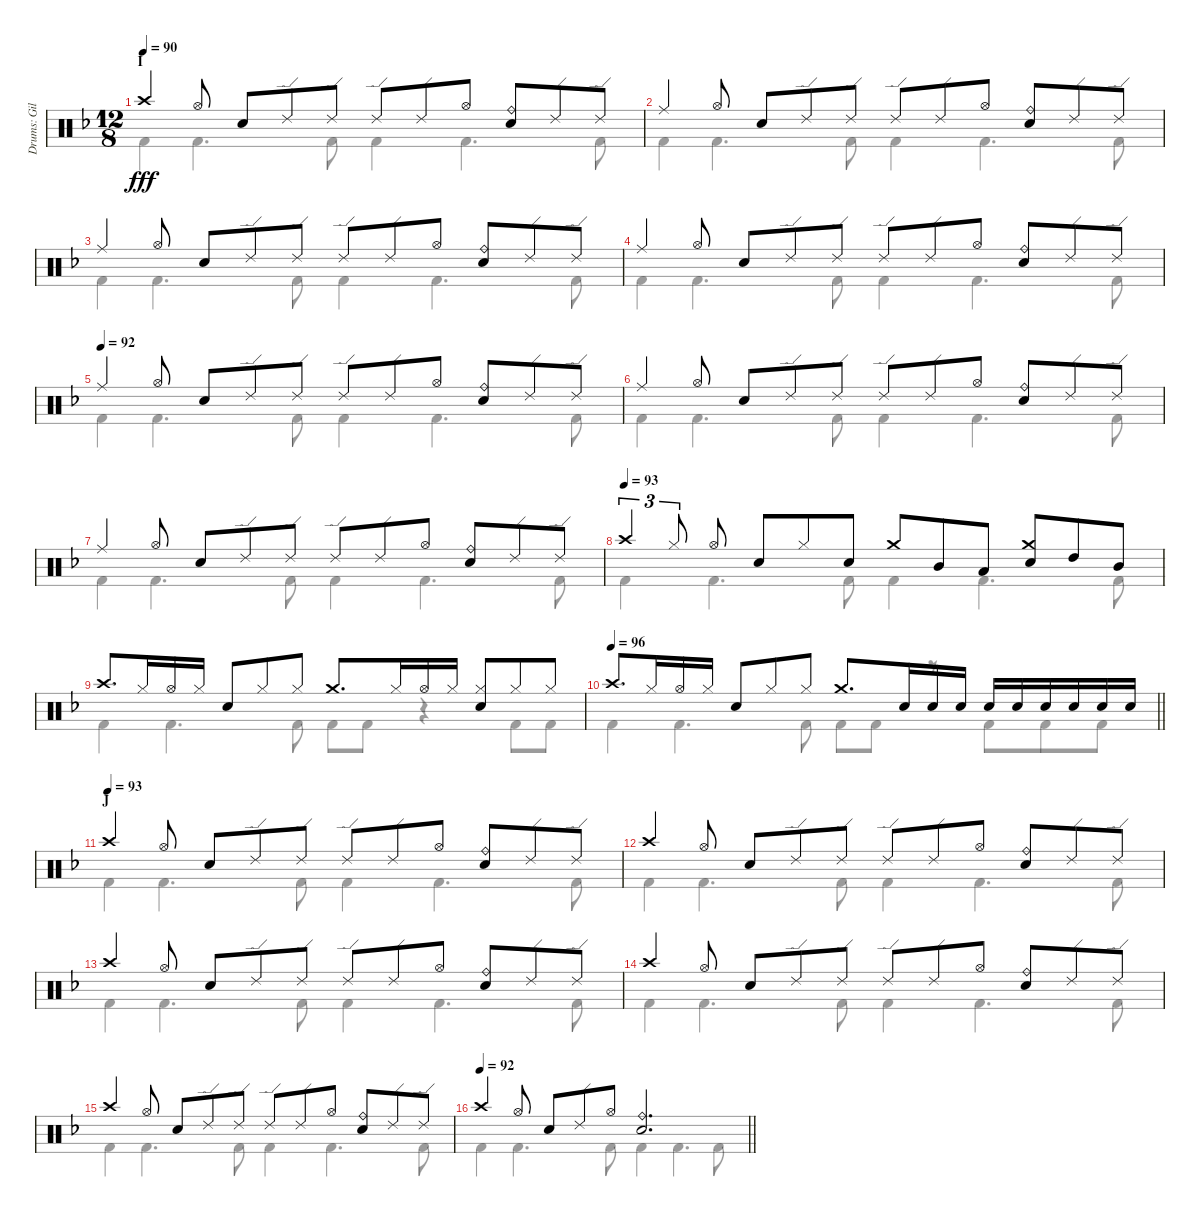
\track ("Drums: Gil" "Drums: Gil") {instrument percussion}
\staff {score}
\articulation defaults
\voice
\ts (12 8)
\section ("" "I")
\tempo 90
\clef neutral
\ks f "Crash high (hit)".4{dy fff} "Hi-Hat (open)".8 "Snare (hit) 2".8 "Ride (edge) 2".8 "Ride (edge) 2".8 "Ride (edge) 2".8 "Ride (edge) 2".8 "Hi-Hat (open)".8
("Ride (bell)" "Snare (hit) 2").8 "Ride (edge) 2".8 "Ride (edge) 2".8 |
"Ride (middle)".4 "Hi-Hat (open)".8 "Snare (hit) 2".8 "Ride (edge) 2".8 "Ride (edge) 2".8 "Ride (edge) 2".8 "Ride (edge) 2".8 "Hi-Hat (open)".8 ("Ride (bell)" "Snare (hit) 2").8 "Ride (edge) 2".8 "Ride (edge) 2".8 |
"Ride (middle)".4 "Hi-Hat (open)".8 "Snare (hit) 2".8 "Ride (edge) 2".8 "Ride (edge) 2".8 "Ride (edge) 2".8 "Ride (edge) 2".8 "Hi-Hat (open)".8 ("Ride (bell)" "Snare (hit) 2").8 "Ride (edge) 2".8 "Ride (edge) 2".8 |
"Ride (middle)".4 "Hi-Hat (open)".8 "Snare (hit) 2".8 "Ride (edge) 2".8 "Ride (edge) 2".8 "Ride (edge) 2".8 "Ride (edge) 2".8 "Hi-Hat (open)".8 ("Ride (bell)" "Snare (hit) 2").8 "Ride (edge) 2".8 "Ride (edge) 2".8 |
\tempo (92)
"Ride (middle)".4 "Hi-Hat (open)".8 "Snare (hit) 2".8 "Ride (edge) 2".8 "Ride (edge) 2".8 "Ride (edge) 2".8 "Ride (edge) 2".8 "Hi-Hat (open)".8 ("Ride (bell)" "Snare (hit) 2").8 "Ride (edge) 2".8 "Ride (edge) 2".8 |
"Ride (middle)".4 "Hi-Hat (open)".8 "Snare (hit) 2".8 "Ride (edge) 2".8 "Ride (edge) 2".8 "Ride (edge) 2".8 "Ride (edge) 2".8 "Hi-Hat (open)".8 ("Ride (bell)" "Snare (hit) 2").8 "Ride (edge) 2".8 "Ride (edge) 2".8 |
"Ride (middle)".4 "Hi-Hat (open)".8 "Snare (hit) 2".8 "Ride (edge) 2".8 "Ride (edge) 2".8 "Ride (edge) 2".8 "Ride (edge) 2".8 "Hi-Hat (open)".8 ("Ride (bell)" "Snare (hit) 2").8 "Ride (edge) 2".8 "Ride (edge) 2".8 |
\tempo (93)
"Crash high (hit)".4{tu (3 2)} "Hi-Hat (closed)".8{tu (3 2)} "Hi-Hat (open)".8 "Snare (hit) 2".8 "Hi-Hat (closed)".8 "Snare (hit) 2".8 "Crash medium (hit)".8 "Mid Tom (hit)".8 "Low Tom (hit)".8 ("Crash medium (hit)" "Snare (hit) 2").8 "High Tom (hit)".8 "Mid Tom (hit)".8 |
"Crash high (hit)".8{d} "Hi-Hat (closed)".16 "Hi-Hat (open)".16 "Hi-Hat (closed)".16 "Snare (hit) 2".8 "Hi-Hat (closed)".8 "Hi-Hat (closed)".8 "Crash medium (hit)".8{d} "Hi-Hat (closed)".16 "Hi-Hat (open)".16 "Hi-Hat (closed)".16 ("Hi-Hat (closed)" "Snare (hit) 2").8 "Hi-Hat (closed)".8 "Hi-Hat (closed)".8 |
\tempo 96
\barLineRight lightlight "Crash high (hit)".8{d} "Hi-Hat (closed)".16 "Hi-Hat (open)".16 "Hi-Hat (closed)".16 "Snare (hit) 2".8 "Hi-Hat (closed)".8 "Hi-Hat (closed)".8 "Crash medium (hit)".8{d} "Snare (hit) 2".16 "Snare (hit) 2".16 "Snare (hit) 2".16 "Snare (hit) 2".16 "Snare (hit) 2".16 "Snare (hit) 2".16 "Snare (hit) 2".16 "Snare (hit) 2".16 "Snare (hit) 2".16
|
\section ("" "J")
\tempo (93)
"Crash high (hit)".4 "Hi-Hat (open)".8 "Snare (hit) 2".8 "Ride (edge) 2".8 "Ride (edge) 2".8 "Ride (edge) 2".8 "Ride (edge) 2".8 "Hi-Hat (open)".8 ("Ride (bell)" "Snare (hit) 2").8 "Ride (edge) 2".8 "Ride (edge) 2".8 |
"Crash high (hit)".4 "Hi-Hat (open)".8 "Snare (hit) 2".8 "Ride (edge) 2".8 "Ride (edge) 2".8 "Ride (edge) 2".8 "Ride (edge) 2".8 "Hi-Hat (open)".8 ("Ride (bell)" "Snare (hit) 2").8 "Ride (edge) 2".8 "Ride (edge) 2".8 |
"Crash high (hit)".4 "Hi-Hat (open)".8 "Snare (hit) 2".8 "Ride (edge) 2".8 "Ride (edge) 2".8 "Ride (edge) 2".8 "Ride (edge) 2".8 "Hi-Hat (open)".8 ("Ride (bell)" "Snare (hit) 2").8 "Ride (edge) 2".8 "Ride (edge) 2".8 |
"Crash high (hit)".4 "Hi-Hat (open)".8 "Snare (hit) 2".8 "Ride (edge) 2".8 "Ride (edge) 2".8 "Ride (edge) 2".8 "Ride (edge) 2".8 "Hi-Hat (open)".8 ("Ride (bell)" "Snare (hit) 2").8 "Ride (edge) 2".8 "Ride (edge) 2".8 |
"Crash high (hit)".4 "Hi-Hat (open)".8 "Snare (hit) 2".8 "Ride (edge) 2".8 "Ride (edge) 2".8 "Ride (edge) 2".8 "Ride (edge) 2".8 "Hi-Hat (open)".8 ("Ride (bell)" "Snare (hit) 2").8 "Ride (edge) 2".8 "Ride (edge) 2".8 |
\tempo 92
\barLineRight lightlight "Crash high (hit)".4 "Hi-Hat (open)".8 "Snare (hit) 2".8 "Ride (edge) 2".8 "Hi-Hat (open)".8
("Ride (bell)" "Snare (hit) 2").2{d}
\voice
\clef neutral
\ottava regular
\simile none
\ks f "Kick (hit) 2".4{dy fff} "Kick (hit) 2".4{d} "Kick (hit) 2".8 "Kick (hit) 2".4 "Kick (hit) 2".4{d} "Kick (hit) 2".8
|
"Kick (hit) 2".4 "Kick (hit) 2".4{d} "Kick (hit) 2".8 "Kick (hit) 2".4 "Kick (hit) 2".4{d} "Kick (hit) 2".8 |
"Kick (hit) 2".4 "Kick (hit) 2".4{d} "Kick (hit) 2".8 "Kick (hit) 2".4 "Kick (hit) 2".4{d} "Kick (hit) 2".8 |
"Kick (hit) 2".4 "Kick (hit) 2".4{d} "Kick (hit) 2".8 "Kick (hit) 2".4 "Kick (hit) 2".4{d} "Kick (hit) 2".8 |
"Kick (hit) 2".4 "Kick (hit) 2".4{d} "Kick (hit) 2".8 "Kick (hit) 2".4 "Kick (hit) 2".4{d} "Kick (hit) 2".8 |
"Kick (hit) 2".4 "Kick (hit) 2".4{d} "Kick (hit) 2".8 "Kick (hit) 2".4 "Kick (hit) 2".4{d} "Kick (hit) 2".8 |
"Kick (hit) 2".4 "Kick (hit) 2".4{d} "Kick (hit) 2".8 "Kick (hit) 2".4 "Kick (hit) 2".4{d} "Kick (hit) 2".8 |
"Kick (hit) 2".4 "Kick (hit) 2".4{d} "Kick (hit) 2".8 "Kick (hit) 2".4 "Kick (hit) 2".4{d} "Kick (hit) 2".8 |
"Kick (hit) 2".4 "Kick (hit) 2".4{d} "Kick (hit) 2".8 "Kick (hit) 2".8 "Kick (hit) 2".8 r.4 "Kick (hit) 2".8 "Kick (hit) 2".8 |
\barLineRight lightlight "Kick (hit) 2".4 "Kick (hit) 2".4{d} "Kick (hit) 2".8 "Kick (hit) 2".8 "Kick (hit) 2".8
r.8 "Kick (hit) 2".8 "Kick (hit) 2".8 "Kick (hit) 2".8 |
"Kick (hit) 2".4 "Kick (hit) 2".4{d} "Kick (hit) 2".8 "Kick (hit) 2".4 "Kick (hit) 2".4{d} "Kick (hit) 2".8 |
"Kick (hit) 2".4 "Kick (hit) 2".4{d} "Kick (hit) 2".8 "Kick (hit) 2".4 "Kick (hit) 2".4{d} "Kick (hit) 2".8 |
"Kick (hit) 2".4 "Kick (hit) 2".4{d} "Kick (hit) 2".8 "Kick (hit) 2".4 "Kick (hit) 2".4{d} "Kick (hit) 2".8 |
"Kick (hit) 2".4 "Kick (hit) 2".4{d} "Kick (hit) 2".8 "Kick (hit) 2".4 "Kick (hit) 2".4{d} "Kick (hit) 2".8 |
"Kick (hit) 2".4 "Kick (hit) 2".4{d} "Kick (hit) 2".8 "Kick (hit) 2".4 "Kick (hit) 2".4{d} "Kick (hit) 2".8 |
\barLineRight lightlight "Kick (hit) 2".4 "Kick (hit) 2".4{d} "Kick (hit) 2".8 "Kick (hit) 2".4 "Kick (hit) 2".4{d} "Kick (hit) 2".8
